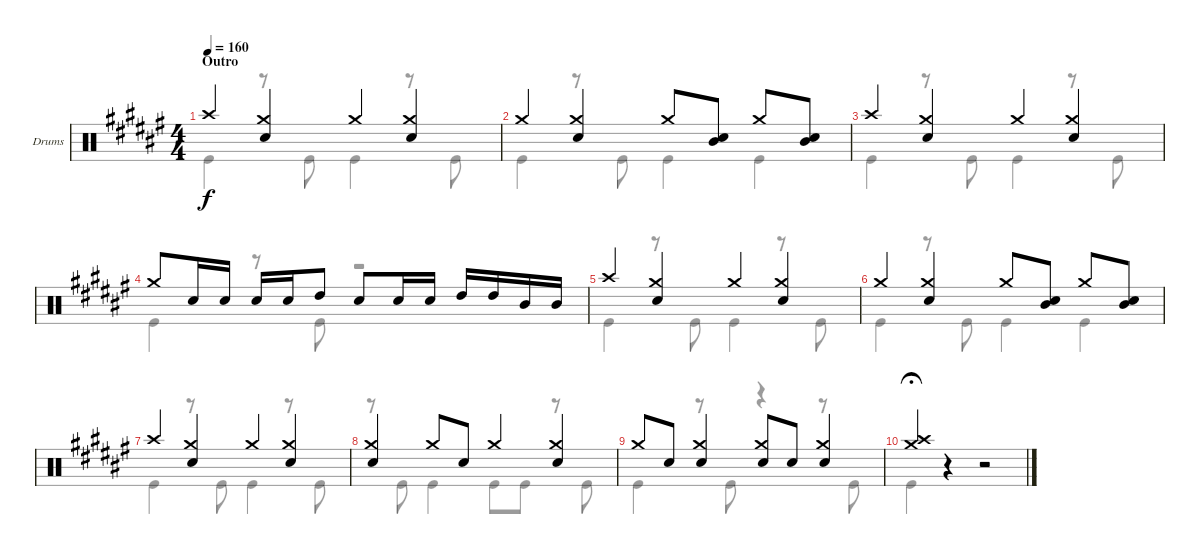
\bracketExtendMode groupsimilarinstruments
\firstSystemTrackNameOrientation horizontal
\otherSystemsTrackNameOrientation horizontal
\track ("Drumkit" "Drums") {instrument percussion}
\staff {score}
\articulation defaults
\voice
\ts (4 4)
\section ("" "Outro")
\tempo 160
\clef neutral
\ks d#minor "Crash high (hit)".4{dy f}
("Crash medium (hit)" "Snare (hit) 2").4 "Crash medium (hit)".4 ("Crash medium (hit)" "Snare (hit) 2").4 |
"Crash medium (hit)".4 ("Crash medium (hit)" "Snare (hit) 2").4 "Crash medium (hit)".8 ("Mid Tom (hit)" "Snare (hit) 2").8 "Crash medium (hit)".8 ("Mid Tom (hit)" "Snare (hit) 2").8 |
"Crash high (hit)".4 ("Crash medium (hit)" "Snare (hit) 2").4 "Crash medium (hit)".4 ("Crash medium (hit)" "Snare (hit) 2").4 |
"Crash medium (hit)".8 "Snare (hit) 2".16 "Snare (hit) 2".16 "Snare (hit) 2".16 "Snare (hit) 2".16 "High Tom (hit)".8 "Snare (hit) 2".8 "Snare (hit) 2".16 "Snare (hit) 2".16 "High Tom (hit)".16 "High Tom (hit)".16 "Mid Tom (hit)".16 "Mid Tom (hit)".16 |
"Crash high (hit)".4 ("Crash medium (hit)" "Snare (hit) 2").4 "Crash medium (hit)".4 ("Crash medium (hit)" "Snare (hit) 2").4 |
"Crash medium (hit)".4 ("Crash medium (hit)" "Snare (hit) 2").4 "Crash medium (hit)".8 ("Mid Tom (hit)" "Snare (hit) 2").8 "Crash medium (hit)".8 ("Mid Tom (hit)" "Snare (hit) 2").8 |
"Crash high (hit)".4 ("Crash medium (hit)" "Snare (hit) 2").4 "Crash medium (hit)".4 ("Crash medium (hit)" "Snare (hit) 2").4 |
("Crash medium (hit)" "Snare (hit) 2").4 "Crash medium (hit)".8 "Snare (hit) 2".8 "Crash medium (hit)".4 ("Crash medium (hit)" "Snare (hit) 2").4 |
"Crash medium (hit)".8 "Snare (hit) 2".8 ("Crash medium (hit)" "Snare (hit) 2").4 ("Crash medium (hit)" "Snare (hit) 2").8 "Snare (hit) 2".8 ("Crash medium (hit)" "Snare (hit) 2").4 |
\tempo (30 hide)
("Crash high (hit)" "Crash medium (hit)").4{fermata (medium 1)} r.4 r.2
\voice
\clef neutral
\ottava regular
\simile none
\ks d#minor "Kick (hit)".4{dy f}
r.8 "Kick (hit)".8 "Kick (hit)".4 r.8 "Kick (hit)".8 |
"Kick (hit)".4 r.8 "Kick (hit)".8 "Kick (hit)".4 "Kick (hit)".4 |
"Kick (hit)".4 r.8 "Kick (hit)".8 "Kick (hit)".4 r.8 "Kick (hit)".8 |
"Kick (hit)".4 r.8 "Kick (hit)".8 r.2 |
"Kick (hit)".4 r.8 "Kick (hit)".8 "Kick (hit)".4 r.8 "Kick (hit)".8 |
"Kick (hit)".4 r.8 "Kick (hit)".8 "Kick (hit)".4 "Kick (hit)".4 |
"Kick (hit)".4 r.8 "Kick (hit)".8 "Kick (hit)".4 r.8 "Kick (hit)".8 |
r.8 "Kick (hit)".8 "Kick (hit)".4 "Kick (hit)".8 "Kick (hit)".8 r.8 "Kick (hit)".8 |
"Kick (hit)".4 r.8 "Kick (hit)".8 r.4 r.8 "Kick (hit)".8 |
"Kick (hit)".4{fermata (medium 1)} r.4 r.2
